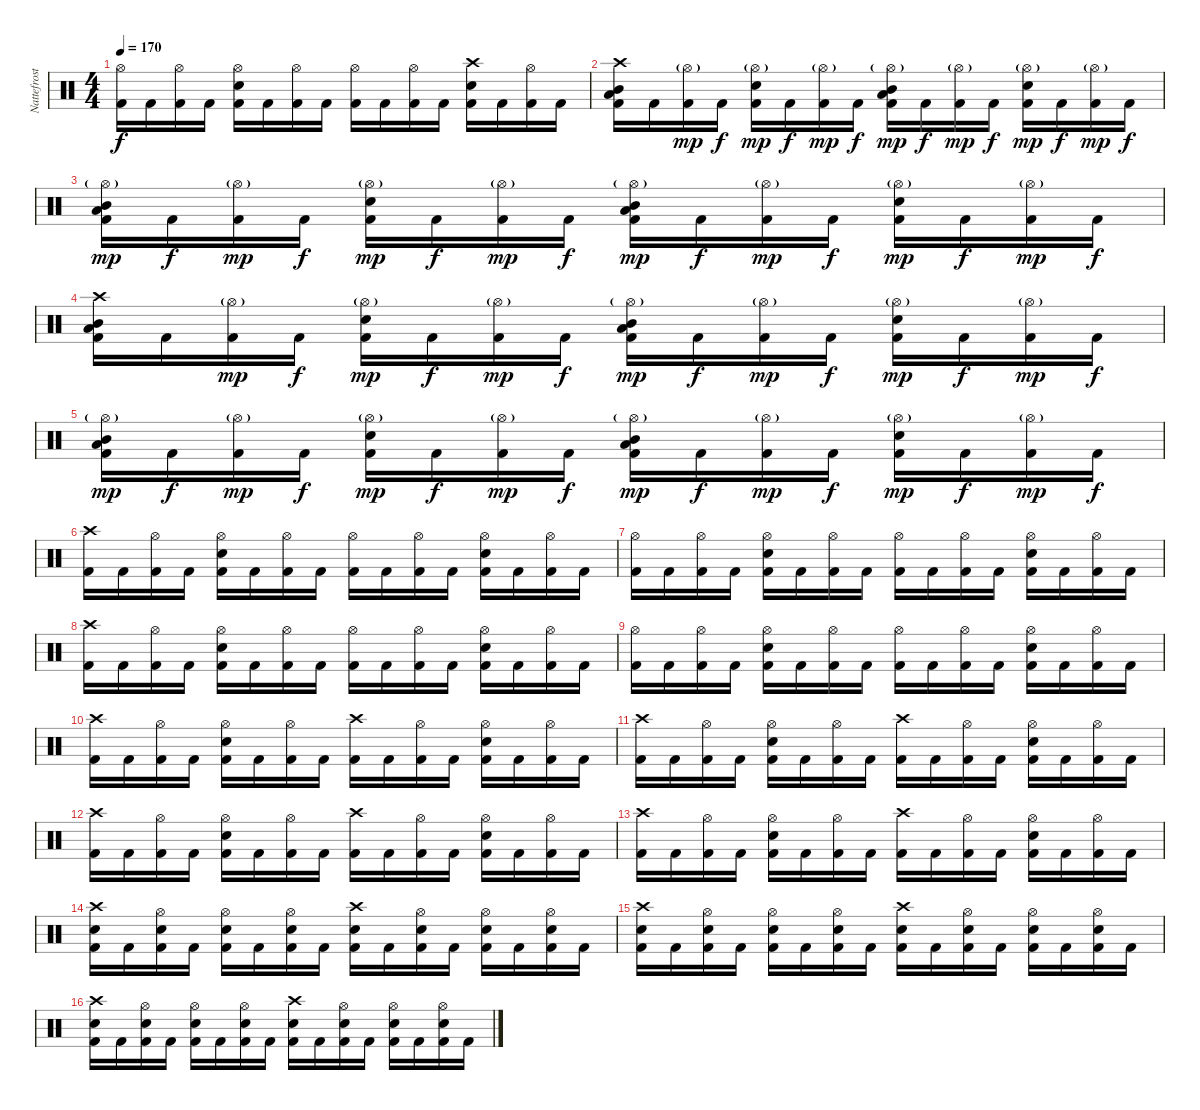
\track ("Nattefrost" "Nattefrost") {instrument percussion}
\staff {score}
\articulation defaults
\ts (4 4)
\tempo 170
\clef neutral
\ks c
("Hi-Hat (open)" "Kick (hit) 2").16{dy f} "Kick (hit) 2".16 ("Hi-Hat (open)" "Kick (hit) 2").16 "Kick (hit) 2".16 ("Hi-Hat (open)" "Snare (hit) 2" "Kick (hit) 2").16 "Kick (hit) 2".16 ("Hi-Hat (open)" "Kick (hit) 2").16 "Kick (hit) 2".16 ("Hi-Hat (open)" "Kick (hit) 2").16 "Kick (hit) 2".16 ("Hi-Hat (open)" "Kick (hit) 2").16 "Kick (hit) 2".16 ("Crash high (hit)" "Snare (hit) 2" "Kick (hit) 2").16 "Kick (hit) 2".16 ("Hi-Hat (open)" "Kick (hit) 2").16 "Kick (hit) 2".16 |
("Crash high (hit)" "Low Tom (hit)" "Mid Tom (hit)" "Kick (hit) 2").16 "Kick (hit) 2".16 ("Hi-Hat (open)"{g} "Kick (hit) 2").16{dy mp} "Kick (hit) 2".16{dy f} ("Hi-Hat (open)"{g} "Snare (hit) 2" "Kick (hit) 2").16{dy mp} "Kick (hit) 2".16{dy f} ("Hi-Hat (open)"{g} "Kick (hit) 2").16{dy mp} "Kick (hit) 2".16{dy f} ("Hi-Hat (open)"{g} "Mid Tom (hit)" "Low Tom (hit)" "Kick (hit) 2").16{dy mp} "Kick (hit) 2".16{dy f} ("Hi-Hat (open)"{g} "Kick (hit) 2").16{dy mp} "Kick (hit) 2".16{dy f} ("Hi-Hat (open)"{g} "Snare (hit) 2" "Kick (hit) 2").16{dy mp} "Kick (hit) 2".16{dy f} ("Hi-Hat (open)"{g} "Kick (hit) 2").16{dy mp} "Kick (hit) 2".16{dy f} |
("Hi-Hat (open)"{g} "Mid Tom (hit)" "Low Tom (hit)" "Kick (hit) 2").16{dy mp} "Kick (hit) 2".16{dy f} ("Hi-Hat (open)"{g} "Kick (hit) 2").16{dy mp} "Kick (hit) 2".16{dy f} ("Hi-Hat (open)"{g} "Snare (hit) 2" "Kick (hit) 2").16{dy mp} "Kick (hit) 2".16{dy f} ("Hi-Hat (open)"{g} "Kick (hit) 2").16{dy mp} "Kick (hit) 2".16{dy f} ("Hi-Hat (open)"{g} "Low Tom (hit)" "Mid Tom (hit)" "Kick (hit) 2").16{dy mp} "Kick (hit) 2".16{dy f} ("Hi-Hat (open)"{g} "Kick (hit) 2").16{dy mp} "Kick (hit) 2".16{dy f} ("Hi-Hat (open)"{g} "Snare (hit) 2" "Kick (hit) 2").16{dy mp} "Kick (hit) 2".16{dy f} ("Hi-Hat (open)"{g} "Kick (hit) 2").16{dy mp} "Kick (hit) 2".16{dy f} |
("Crash high (hit)" "Mid Tom (hit)" "Low Tom (hit)" "Kick (hit) 2").16 "Kick (hit) 2".16 ("Hi-Hat (open)"{g} "Kick (hit) 2").16{dy mp} "Kick (hit) 2".16{dy f} ("Hi-Hat (open)"{g} "Snare (hit) 2" "Kick (hit) 2").16{dy mp} "Kick (hit) 2".16{dy f} ("Hi-Hat (open)"{g} "Kick (hit) 2").16{dy mp} "Kick (hit) 2".16{dy f} ("Hi-Hat (open)"{g} "Mid Tom (hit)" "Low Tom (hit)" "Kick (hit) 2").16{dy mp} "Kick (hit) 2".16{dy f} ("Hi-Hat (open)"{g} "Kick (hit) 2").16{dy mp} "Kick (hit) 2".16{dy f} ("Hi-Hat (open)"{g} "Snare (hit) 2" "Kick (hit) 2").16{dy mp} "Kick (hit) 2".16{dy f} ("Hi-Hat (open)"{g} "Kick (hit) 2").16{dy mp} "Kick (hit) 2".16{dy f} |
("Hi-Hat (open)"{g} "Mid Tom (hit)" "Low Tom (hit)" "Kick (hit) 2").16{dy mp} "Kick (hit) 2".16{dy f} ("Hi-Hat (open)"{g} "Kick (hit) 2").16{dy mp} "Kick (hit) 2".16{dy f} ("Hi-Hat (open)"{g} "Snare (hit) 2" "Kick (hit) 2").16{dy mp} "Kick (hit) 2".16{dy f} ("Hi-Hat (open)"{g} "Kick (hit) 2").16{dy mp} "Kick (hit) 2".16{dy f} ("Hi-Hat (open)"{g} "Mid Tom (hit)" "Low Tom (hit)" "Kick (hit) 2").16{dy mp} "Kick (hit) 2".16{dy f} ("Hi-Hat (open)"{g} "Kick (hit) 2").16{dy mp} "Kick (hit) 2".16{dy f} ("Hi-Hat (open)"{g} "Snare (hit) 2" "Kick (hit) 2").16{dy mp} "Kick (hit) 2".16{dy f} ("Hi-Hat (open)"{g} "Kick (hit) 2").16{dy mp} "Kick (hit) 2".16{dy f} |
("Crash high (hit)" "Kick (hit) 2").16 "Kick (hit) 2".16 ("Hi-Hat (open)" "Kick (hit) 2").16 "Kick (hit) 2".16 ("Hi-Hat (open)" "Snare (hit) 2" "Kick (hit) 2").16 "Kick (hit) 2".16 ("Hi-Hat (open)" "Kick (hit) 2").16 "Kick (hit) 2".16 ("Hi-Hat (open)" "Kick (hit) 2").16 "Kick (hit) 2".16 ("Hi-Hat (open)" "Kick (hit) 2").16 "Kick (hit) 2".16 ("Hi-Hat (open)" "Snare (hit) 2" "Kick (hit) 2").16 "Kick (hit) 2".16 ("Hi-Hat (open)" "Kick (hit) 2").16 "Kick (hit) 2".16 |
("Hi-Hat (open)" "Kick (hit) 2").16 "Kick (hit) 2".16 ("Hi-Hat (open)" "Kick (hit) 2").16 "Kick (hit) 2".16 ("Hi-Hat (open)" "Snare (hit) 2" "Kick (hit) 2").16 "Kick (hit) 2".16 ("Hi-Hat (open)" "Kick (hit) 2").16 "Kick (hit) 2".16 ("Hi-Hat (open)" "Kick (hit) 2").16 "Kick (hit) 2".16 ("Hi-Hat (open)" "Kick (hit) 2").16 "Kick (hit) 2".16 ("Hi-Hat (open)" "Snare (hit) 2" "Kick (hit) 2").16 "Kick (hit) 2".16 ("Hi-Hat (open)" "Kick (hit) 2").16 "Kick (hit) 2".16 |
("Crash high (hit)" "Kick (hit) 2").16 "Kick (hit) 2".16 ("Hi-Hat (open)" "Kick (hit) 2").16 "Kick (hit) 2".16 ("Hi-Hat (open)" "Snare (hit) 2" "Kick (hit) 2").16 "Kick (hit) 2".16 ("Hi-Hat (open)" "Kick (hit) 2").16 "Kick (hit) 2".16 ("Hi-Hat (open)" "Kick (hit) 2").16 "Kick (hit) 2".16 ("Hi-Hat (open)" "Kick (hit) 2").16 "Kick (hit) 2".16 ("Hi-Hat (open)" "Snare (hit) 2" "Kick (hit) 2").16 "Kick (hit) 2".16 ("Hi-Hat (open)" "Kick (hit) 2").16 "Kick (hit) 2".16 |
("Hi-Hat (open)" "Kick (hit) 2").16 "Kick (hit) 2".16 ("Hi-Hat (open)" "Kick (hit) 2").16 "Kick (hit) 2".16 ("Hi-Hat (open)" "Snare (hit) 2" "Kick (hit) 2").16 "Kick (hit) 2".16 ("Hi-Hat (open)" "Kick (hit) 2").16 "Kick (hit) 2".16 ("Hi-Hat (open)" "Kick (hit) 2").16 "Kick (hit) 2".16 ("Hi-Hat (open)" "Kick (hit) 2").16 "Kick (hit) 2".16 ("Hi-Hat (open)" "Snare (hit) 2" "Kick (hit) 2").16 "Kick (hit) 2".16 ("Hi-Hat (open)" "Kick (hit) 2").16 "Kick (hit) 2".16 |
("Crash high (hit)" "Kick (hit) 2").16 "Kick (hit) 2".16 ("Hi-Hat (open)" "Kick (hit) 2").16 "Kick (hit) 2".16 ("Hi-Hat (open)" "Snare (hit) 2" "Kick (hit) 2").16 "Kick (hit) 2".16 ("Hi-Hat (open)" "Kick (hit) 2").16 "Kick (hit) 2".16 ("Crash high (hit)" "Kick (hit) 2").16 "Kick (hit) 2".16 ("Hi-Hat (open)" "Kick (hit) 2").16 "Kick (hit) 2".16 ("Hi-Hat (open)" "Snare (hit) 2" "Kick (hit) 2").16 "Kick (hit) 2".16 ("Hi-Hat (open)" "Kick (hit) 2").16 "Kick (hit) 2".16 |
("Crash high (hit)" "Kick (hit) 2").16 "Kick (hit) 2".16 ("Hi-Hat (open)" "Kick (hit) 2").16 "Kick (hit) 2".16 ("Hi-Hat (open)" "Snare (hit) 2" "Kick (hit) 2").16 "Kick (hit) 2".16 ("Hi-Hat (open)" "Kick (hit) 2").16 "Kick (hit) 2".16 ("Crash high (hit)" "Kick (hit) 2").16 "Kick (hit) 2".16 ("Hi-Hat (open)" "Kick (hit) 2").16 "Kick (hit) 2".16 ("Hi-Hat (open)" "Snare (hit) 2" "Kick (hit) 2").16 "Kick (hit) 2".16 ("Hi-Hat (open)" "Kick (hit) 2").16 "Kick (hit) 2".16 |
("Crash high (hit)" "Kick (hit) 2").16 "Kick (hit) 2".16 ("Hi-Hat (open)" "Kick (hit) 2").16 "Kick (hit) 2".16 ("Hi-Hat (open)" "Snare (hit) 2" "Kick (hit) 2").16 "Kick (hit) 2".16 ("Hi-Hat (open)" "Kick (hit) 2").16 "Kick (hit) 2".16 ("Crash high (hit)" "Kick (hit) 2").16 "Kick (hit) 2".16 ("Hi-Hat (open)" "Kick (hit) 2").16 "Kick (hit) 2".16 ("Hi-Hat (open)" "Snare (hit) 2" "Kick (hit) 2").16 "Kick (hit) 2".16 ("Hi-Hat (open)" "Kick (hit) 2").16 "Kick (hit) 2".16 |
("Crash high (hit)" "Kick (hit) 2").16 "Kick (hit) 2".16 ("Hi-Hat (open)" "Kick (hit) 2").16 "Kick (hit) 2".16 ("Hi-Hat (open)" "Snare (hit) 2" "Kick (hit) 2").16 "Kick (hit) 2".16 ("Hi-Hat (open)" "Kick (hit) 2").16 "Kick (hit) 2".16 ("Crash high (hit)" "Kick (hit) 2").16 "Kick (hit) 2".16 ("Hi-Hat (open)" "Kick (hit) 2").16 "Kick (hit) 2".16 ("Hi-Hat (open)" "Snare (hit) 2" "Kick (hit) 2").16 "Kick (hit) 2".16 ("Hi-Hat (open)" "Kick (hit) 2").16 "Kick (hit) 2".16 |
("Crash high (hit)" "Snare (hit) 2" "Kick (hit) 2").16 "Kick (hit) 2".16 ("Hi-Hat (open)" "Snare (hit) 2" "Kick (hit) 2").16 "Kick (hit) 2".16 ("Hi-Hat (open)" "Snare (hit) 2" "Kick (hit) 2").16 "Kick (hit) 2".16 ("Hi-Hat (open)" "Snare (hit) 2" "Kick (hit) 2").16 "Kick (hit) 2".16 ("Crash high (hit)" "Snare (hit) 2" "Kick (hit) 2").16 "Kick (hit) 2".16 ("Hi-Hat (open)" "Snare (hit) 2" "Kick (hit) 2").16 "Kick (hit) 2".16 ("Hi-Hat (open)" "Snare (hit) 2" "Kick (hit) 2").16 "Kick (hit) 2".16 ("Hi-Hat (open)" "Snare (hit) 2" "Kick (hit) 2").16 "Kick (hit) 2".16 |
("Crash high (hit)" "Snare (hit) 2" "Kick (hit) 2").16 "Kick (hit) 2".16 ("Hi-Hat (open)" "Snare (hit) 2" "Kick (hit) 2").16 "Kick (hit) 2".16 ("Hi-Hat (open)" "Snare (hit) 2" "Kick (hit) 2").16 "Kick (hit) 2".16 ("Hi-Hat (open)" "Snare (hit) 2" "Kick (hit) 2").16 "Kick (hit) 2".16 ("Crash high (hit)" "Snare (hit) 2" "Kick (hit) 2").16 "Kick (hit) 2".16 ("Hi-Hat (open)" "Snare (hit) 2" "Kick (hit) 2").16 "Kick (hit) 2".16 ("Hi-Hat (open)" "Snare (hit) 2" "Kick (hit) 2").16 "Kick (hit) 2".16 ("Hi-Hat (open)" "Snare (hit) 2" "Kick (hit) 2").16 "Kick (hit) 2".16 |
("Crash high (hit)" "Snare (hit) 2" "Kick (hit) 2").16 "Kick (hit) 2".16 ("Hi-Hat (open)" "Snare (hit) 2" "Kick (hit) 2").16 "Kick (hit) 2".16 ("Hi-Hat (open)" "Snare (hit) 2" "Kick (hit) 2").16 "Kick (hit) 2".16 ("Hi-Hat (open)" "Snare (hit) 2" "Kick (hit) 2").16 "Kick (hit) 2".16 ("Crash high (hit)" "Snare (hit) 2" "Kick (hit) 2").16 "Kick (hit) 2".16 ("Hi-Hat (open)" "Snare (hit) 2" "Kick (hit) 2").16 "Kick (hit) 2".16 ("Hi-Hat (open)" "Snare (hit) 2" "Kick (hit) 2").16 "Kick (hit) 2".16 ("Hi-Hat (open)" "Snare (hit) 2" "Kick (hit) 2").16 "Kick (hit) 2".16
